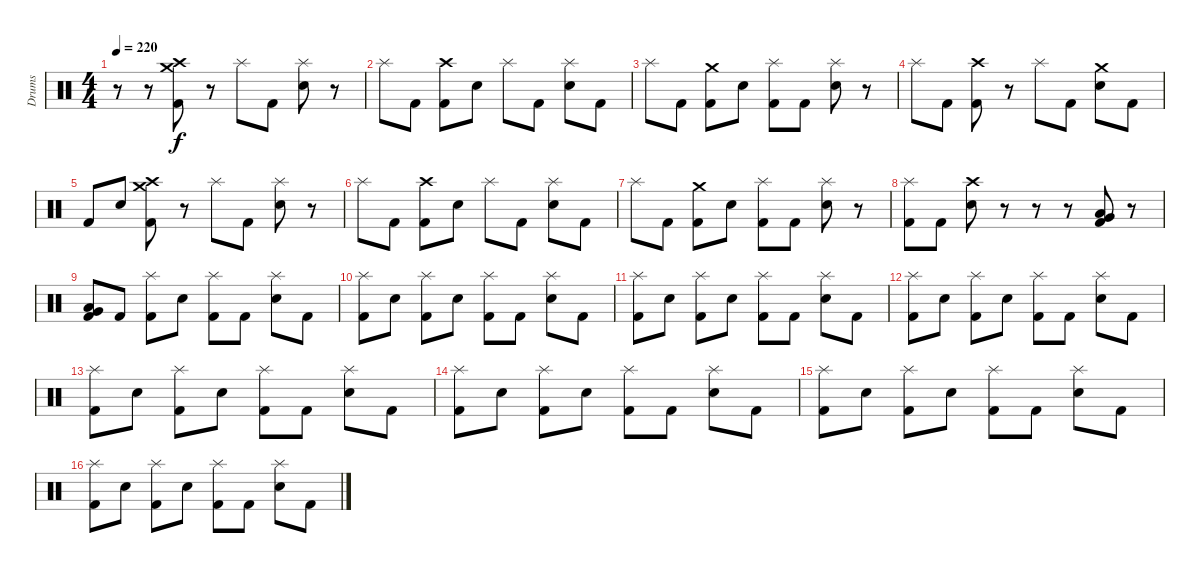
\track ("Drums" "Drums") {instrument percussion}
\staff {score}
\articulation defaults
\ts (4 4)
\tempo 220
\clef neutral
\ks c
r.8{dy f} r.8 ("Crash high (hit)" "Crash medium (hit)" "Kick (hit) 2").8 r.8 "Splash (hit)".8 "Kick (hit) 2".8 ("Splash (hit)" "Electric Snare (hit)").8 r.8 |
"Splash (hit)".8 "Kick (hit) 2".8 ("Crash high (hit)" "Kick (hit) 2").8 "Electric Snare (hit)".8 "Splash (hit)".8 "Kick (hit) 2".8 ("Splash (hit)" "Electric Snare (hit)").8 "Kick (hit) 2".8 |
"Splash (hit)".8 "Kick (hit) 2".8 ("Crash medium (hit)" "Kick (hit) 2").8 "Electric Snare (hit)".8 ("Splash (hit)" "Kick (hit) 2").8 "Kick (hit) 2".8 ("Splash (hit)" "Electric Snare (hit)").8 r.8 |
"Splash (hit)".8 "Kick (hit) 2".8 ("Crash high (hit)" "Kick (hit) 2").8 r.8 "Splash (hit)".8 "Kick (hit) 2".8 ("Crash medium (hit)" "Electric Snare (hit)").8 "Kick (hit) 2".8 |
"Kick (hit) 2".8 "Electric Snare (hit)".8 ("Crash high (hit)" "Crash medium (hit)" "Kick (hit) 2").8 r.8 "Splash (hit)".8 "Kick (hit) 2".8 ("Splash (hit)" "Electric Snare (hit)").8 r.8 |
"Splash (hit)".8 "Kick (hit) 2".8 ("Crash high (hit)" "Kick (hit) 2").8 "Electric Snare (hit)".8 "Splash (hit)".8 "Kick (hit) 2".8 ("Splash (hit)" "Electric Snare (hit)").8 "Kick (hit) 2".8 |
"Splash (hit)".8 "Kick (hit) 2".8 ("Crash medium (hit)" "Kick (hit) 2").8 "Electric Snare (hit)".8 ("Splash (hit)" "Kick (hit) 2").8 "Kick (hit) 2".8 ("Splash (hit)" "Electric Snare (hit)").8 r.8 |
("Splash (hit)" "Kick (hit) 2").8 "Kick (hit) 2".8 ("Crash high (hit)" "Electric Snare (hit)").8 r.8 r.8 r.8 ("Very Low Tom (hit)" "Low Floor Tom (hit)" "Kick (hit) 2").8 r.8 |
("Very Low Tom (hit)" "Low Floor Tom (hit)" "Kick (hit) 2").8 "Kick (hit) 2".8 ("Splash (hit)" "Kick (hit) 2").8 "Electric Snare (hit)".8 ("Splash (hit)" "Kick (hit) 2").8 "Kick (hit) 2".8 ("Splash (hit)" "Electric Snare (hit)").8 "Kick (hit) 2".8 |
("Splash (hit)" "Kick (hit) 2").8 "Electric Snare (hit)".8 ("Splash (hit)" "Kick (hit) 2").8 "Electric Snare (hit)".8 ("Splash (hit)" "Kick (hit) 2").8 "Kick (hit) 2".8 ("Splash (hit)" "Electric Snare (hit)").8 "Kick (hit) 2".8 |
("Splash (hit)" "Kick (hit) 2").8 "Electric Snare (hit)".8 ("Splash (hit)" "Kick (hit) 2").8 "Electric Snare (hit)".8 ("Splash (hit)" "Kick (hit) 2").8 "Kick (hit) 2".8 ("Splash (hit)" "Electric Snare (hit)").8 "Kick (hit) 2".8 |
("Splash (hit)" "Kick (hit) 2").8 "Electric Snare (hit)".8 ("Splash (hit)" "Kick (hit) 2").8 "Electric Snare (hit)".8 ("Splash (hit)" "Kick (hit) 2").8 "Kick (hit) 2".8 ("Splash (hit)" "Electric Snare (hit)").8 "Kick (hit) 2".8 |
("Splash (hit)" "Kick (hit) 2").8 "Electric Snare (hit)".8 ("Splash (hit)" "Kick (hit) 2").8 "Electric Snare (hit)".8 ("Splash (hit)" "Kick (hit) 2").8 "Kick (hit) 2".8 ("Splash (hit)" "Electric Snare (hit)").8 "Kick (hit) 2".8 |
("Splash (hit)" "Kick (hit) 2").8 "Electric Snare (hit)".8 ("Splash (hit)" "Kick (hit) 2").8 "Electric Snare (hit)".8 ("Splash (hit)" "Kick (hit) 2").8 "Kick (hit) 2".8 ("Splash (hit)" "Electric Snare (hit)").8 "Kick (hit) 2".8 |
("Splash (hit)" "Kick (hit) 2").8 "Electric Snare (hit)".8 ("Splash (hit)" "Kick (hit) 2").8 "Electric Snare (hit)".8 ("Splash (hit)" "Kick (hit) 2").8 "Kick (hit) 2".8 ("Splash (hit)" "Electric Snare (hit)").8 "Kick (hit) 2".8 |
("Splash (hit)" "Kick (hit) 2").8 "Electric Snare (hit)".8 ("Splash (hit)" "Kick (hit) 2").8 "Electric Snare (hit)".8 ("Splash (hit)" "Kick (hit) 2").8 "Kick (hit) 2".8 ("Splash (hit)" "Electric Snare (hit)").8 "Kick (hit) 2".8
